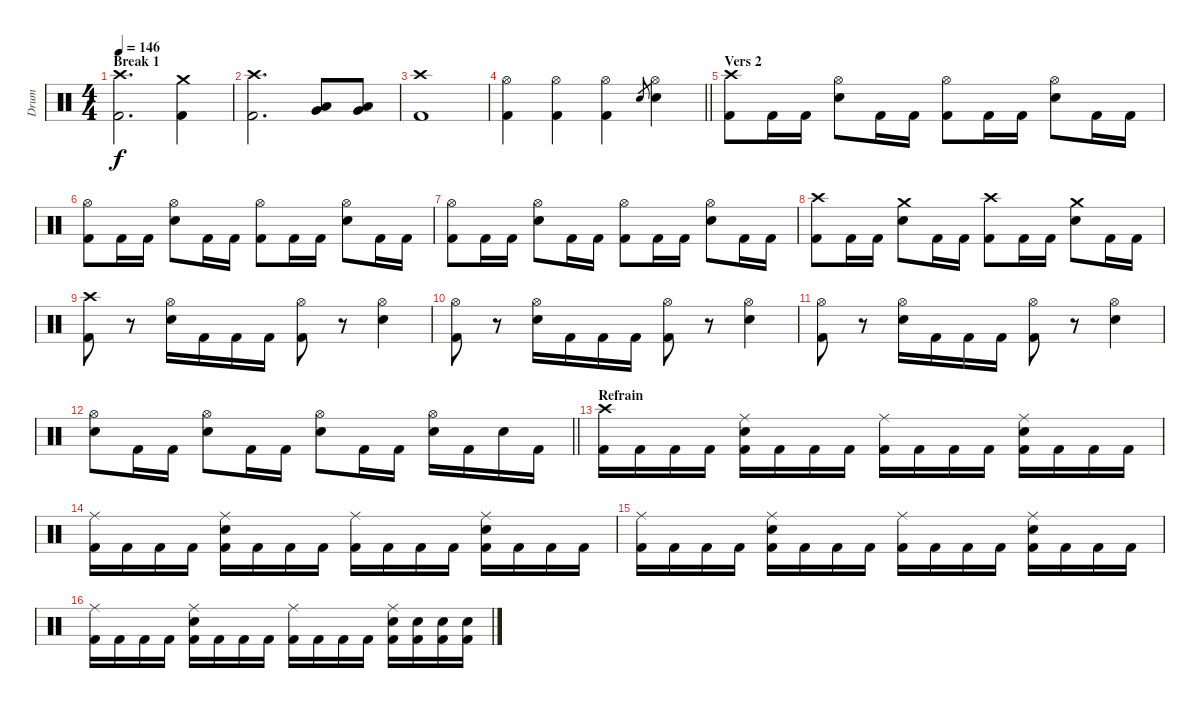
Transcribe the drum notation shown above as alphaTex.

\track ("Drum" "Drum") {instrument percussion}
\staff {score}
\articulation defaults
\ts (4 4)
\section ("" "Break 1")
\tempo 146
\clef neutral
\ks c
("Crash high (hit)" "Kick (hit) 2").2{d dy f} ("Crash medium (hit)" "Kick (hit) 2").4 |
("Crash high (hit)" "Kick (hit) 2").2{d} ("Very Low Tom (hit)" "Low Floor Tom (hit)").8 ("Very Low Tom (hit)" "Low Floor Tom (hit)").8 |
("Crash high (hit)" "Kick (hit) 2").1 |
\barLineRight lightlight
("Hi-Hat (open)" "Kick (hit) 2").4 ("Hi-Hat (open)" "Kick (hit) 2").4 ("Hi-Hat (open)" "Kick (hit) 2").4 "Electric Snare (hit)".8{gr} ("Hi-Hat (open)" "Electric Snare (hit)").4 |
\section ("" "Vers 2")
("Crash high (hit)" "Kick (hit) 2").8 "Kick (hit) 2".16 "Kick (hit) 2".16 ("Hi-Hat (open)" "Electric Snare (hit)").8 "Kick (hit) 2".16 "Kick (hit) 2".16 ("Hi-Hat (open)" "Kick (hit) 2").8 "Kick (hit) 2".16 "Kick (hit) 2".16 ("Hi-Hat (open)" "Electric Snare (hit)").8 "Kick (hit) 2".16 "Kick (hit) 2".16 |
("Hi-Hat (open)" "Kick (hit) 2").8 "Kick (hit) 2".16 "Kick (hit) 2".16 ("Hi-Hat (open)" "Electric Snare (hit)").8 "Kick (hit) 2".16 "Kick (hit) 2".16 ("Hi-Hat (open)" "Kick (hit) 2").8 "Kick (hit) 2".16 "Kick (hit) 2".16 ("Hi-Hat (open)" "Electric Snare (hit)").8 "Kick (hit) 2".16 "Kick (hit) 2".16 |
("Hi-Hat (open)" "Kick (hit) 2").8 "Kick (hit) 2".16 "Kick (hit) 2".16 ("Hi-Hat (open)" "Electric Snare (hit)").8 "Kick (hit) 2".16 "Kick (hit) 2".16 ("Hi-Hat (open)" "Kick (hit) 2").8 "Kick (hit) 2".16 "Kick (hit) 2".16 ("Hi-Hat (open)" "Electric Snare (hit)").8 "Kick (hit) 2".16 "Kick (hit) 2".16 |
("Crash high (hit)" "Kick (hit) 2").8 "Kick (hit) 2".16 "Kick (hit) 2".16 ("Crash medium (hit)" "Electric Snare (hit)").8 "Kick (hit) 2".16 "Kick (hit) 2".16 ("Crash high (hit)" "Kick (hit) 2").8 "Kick (hit) 2".16 "Kick (hit) 2".16 ("Crash medium (hit)" "Electric Snare (hit)").8 "Kick (hit) 2".16 "Kick (hit) 2".16 |
("Crash high (hit)" "Kick (hit) 2").8 r.8 ("Hi-Hat (open)" "Electric Snare (hit)").16 "Kick (hit) 2".16 "Kick (hit) 2".16 "Kick (hit) 2".16 ("Hi-Hat (open)" "Kick (hit) 2").8 r.8 ("Hi-Hat (open)" "Electric Snare (hit)").4 |
("Hi-Hat (open)" "Kick (hit) 2").8 r.8 ("Hi-Hat (open)" "Electric Snare (hit)").16 "Kick (hit) 2".16 "Kick (hit) 2".16 "Kick (hit) 2".16 ("Hi-Hat (open)" "Kick (hit) 2").8 r.8 ("Hi-Hat (open)" "Electric Snare (hit)").4 |
("Hi-Hat (open)" "Kick (hit) 2").8 r.8 ("Hi-Hat (open)" "Electric Snare (hit)").16 "Kick (hit) 2".16 "Kick (hit) 2".16 "Kick (hit) 2".16 ("Hi-Hat (open)" "Kick (hit) 2").8 r.8 ("Hi-Hat (open)" "Electric Snare (hit)").4 |
\barLineRight lightlight
("Hi-Hat (open)" "Electric Snare (hit)").8 "Kick (hit) 2".16 "Kick (hit) 2".16 ("Hi-Hat (open)" "Electric Snare (hit)").8 "Kick (hit) 2".16 "Kick (hit) 2".16 ("Hi-Hat (open)" "Electric Snare (hit)").8 "Kick (hit) 2".16 "Kick (hit) 2".16 ("Hi-Hat (open)" "Electric Snare (hit)").16 "Kick (hit) 2".16 "Electric Snare (hit)".16 "Kick (hit) 2".16 |
\section ("" "Refrain")
("Crash high (hit)" "Kick (hit) 2").16 "Kick (hit) 2".16 "Kick (hit) 2".16 "Kick (hit) 2".16 ("Ride (middle)" "Electric Snare (hit)" "Kick (hit) 2").16 "Kick (hit) 2".16 "Kick (hit) 2".16 "Kick (hit) 2".16 ("Ride (middle)" "Kick (hit) 2").16 "Kick (hit) 2".16 "Kick (hit) 2".16 "Kick (hit) 2".16 ("Ride (middle)" "Electric Snare (hit)" "Kick (hit) 2").16 "Kick (hit) 2".16 "Kick (hit) 2".16 "Kick (hit) 2".16 |
("Ride (middle)" "Kick (hit) 2").16 "Kick (hit) 2".16 "Kick (hit) 2".16 "Kick (hit) 2".16 ("Ride (middle)" "Electric Snare (hit)" "Kick (hit) 2").16 "Kick (hit) 2".16 "Kick (hit) 2".16 "Kick (hit) 2".16 ("Ride (middle)" "Kick (hit) 2").16 "Kick (hit) 2".16 "Kick (hit) 2".16 "Kick (hit) 2".16 ("Ride (middle)" "Electric Snare (hit)" "Kick (hit) 2").16 "Kick (hit) 2".16 "Kick (hit) 2".16 "Kick (hit) 2".16 |
("Ride (middle)" "Kick (hit) 2").16 "Kick (hit) 2".16 "Kick (hit) 2".16 "Kick (hit) 2".16 ("Ride (middle)" "Electric Snare (hit)" "Kick (hit) 2").16 "Kick (hit) 2".16 "Kick (hit) 2".16 "Kick (hit) 2".16 ("Ride (middle)" "Kick (hit) 2").16 "Kick (hit) 2".16 "Kick (hit) 2".16 "Kick (hit) 2".16 ("Ride (middle)" "Electric Snare (hit)" "Kick (hit) 2").16 "Kick (hit) 2".16 "Kick (hit) 2".16 "Kick (hit) 2".16 |
("Ride (middle)" "Kick (hit) 2").16 "Kick (hit) 2".16 "Kick (hit) 2".16 "Kick (hit) 2".16 ("Ride (middle)" "Electric Snare (hit)" "Kick (hit) 2").16 "Kick (hit) 2".16 "Kick (hit) 2".16 "Kick (hit) 2".16 ("Ride (middle)" "Kick (hit) 2").16 "Kick (hit) 2".16 "Kick (hit) 2".16 "Kick (hit) 2".16 ("Ride (middle)" "Electric Snare (hit)" "Kick (hit) 2").16 ("Electric Snare (hit)" "Kick (hit) 2").16 ("Electric Snare (hit)" "Kick (hit) 2").16 ("Electric Snare (hit)" "Kick (hit) 2").16
